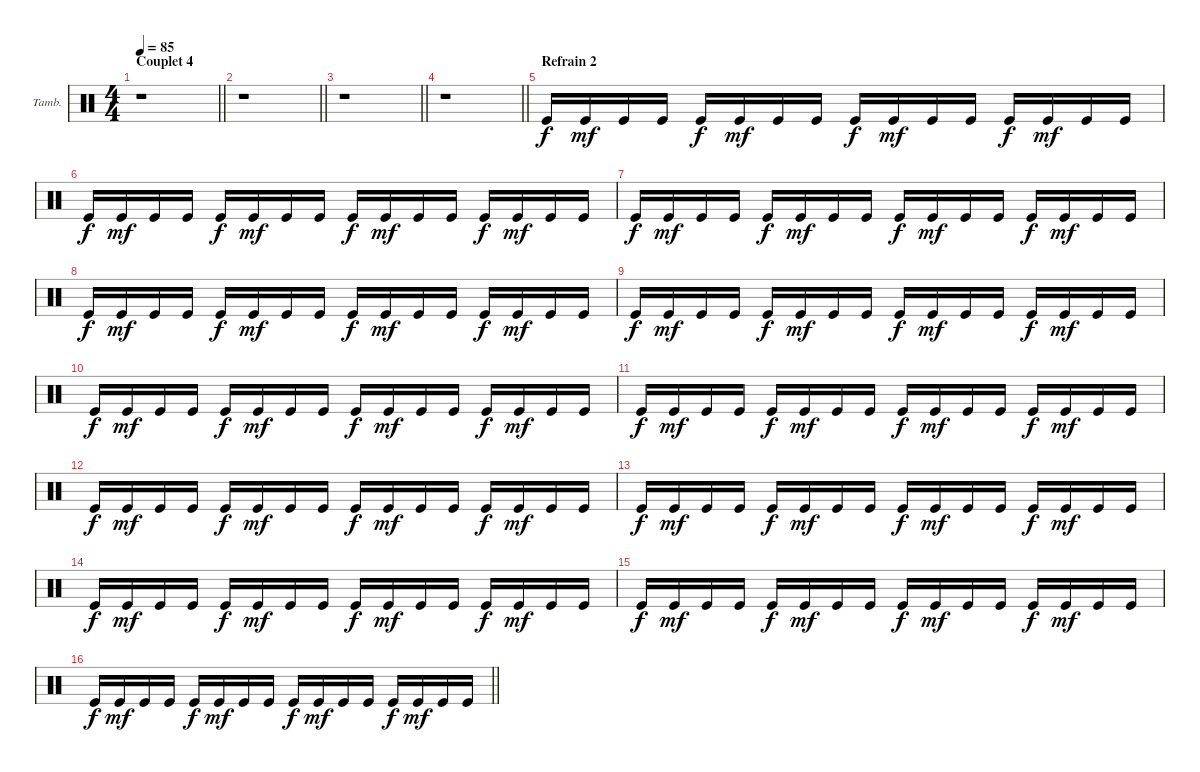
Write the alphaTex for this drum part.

\bracketExtendMode groupsimilarinstruments
\firstSystemTrackNameOrientation horizontal
\otherSystemsTrackNameOrientation horizontal
\chordDiagramsInScore
\track ("Tambourine" "Tamb.") {instrument percussion}
\staff {score}
\articulation defaults
\ts (4 4)
\section ("" "Couplet 4")
\tempo 85
\clef neutral
\barLineRight lightlight
\ks c
r.1{dy ppp} |
\barLineRight lightlight
r.1 |
\barLineRight lightlight
r.1 |
\barLineRight lightlight
r.1 |
\section ("" "Refrain 2")
"Kick (hit)".16{dy f} "Kick (hit)".16{dy mf} "Kick (hit)".16 "Kick (hit)".16 "Kick (hit)".16{dy f} "Kick (hit)".16{dy mf} "Kick (hit)".16 "Kick (hit)".16 "Kick (hit)".16{dy f} "Kick (hit)".16{dy mf} "Kick (hit)".16 "Kick (hit)".16 "Kick (hit)".16{dy f} "Kick (hit)".16{dy mf} "Kick (hit)".16 "Kick (hit)".16 |
"Kick (hit)".16{dy f} "Kick (hit)".16{dy mf} "Kick (hit)".16 "Kick (hit)".16 "Kick (hit)".16{dy f} "Kick (hit)".16{dy mf} "Kick (hit)".16 "Kick (hit)".16 "Kick (hit)".16{dy f} "Kick (hit)".16{dy mf} "Kick (hit)".16 "Kick (hit)".16 "Kick (hit)".16{dy f} "Kick (hit)".16{dy mf} "Kick (hit)".16 "Kick (hit)".16 |
"Kick (hit)".16{dy f} "Kick (hit)".16{dy mf} "Kick (hit)".16 "Kick (hit)".16 "Kick (hit)".16{dy f} "Kick (hit)".16{dy mf} "Kick (hit)".16 "Kick (hit)".16 "Kick (hit)".16{dy f} "Kick (hit)".16{dy mf} "Kick (hit)".16 "Kick (hit)".16 "Kick (hit)".16{dy f} "Kick (hit)".16{dy mf} "Kick (hit)".16 "Kick (hit)".16 |
"Kick (hit)".16{dy f} "Kick (hit)".16{dy mf} "Kick (hit)".16 "Kick (hit)".16 "Kick (hit)".16{dy f} "Kick (hit)".16{dy mf} "Kick (hit)".16 "Kick (hit)".16 "Kick (hit)".16{dy f} "Kick (hit)".16{dy mf} "Kick (hit)".16 "Kick (hit)".16 "Kick (hit)".16{dy f} "Kick (hit)".16{dy mf} "Kick (hit)".16 "Kick (hit)".16 |
"Kick (hit)".16{dy f} "Kick (hit)".16{dy mf} "Kick (hit)".16 "Kick (hit)".16 "Kick (hit)".16{dy f} "Kick (hit)".16{dy mf} "Kick (hit)".16 "Kick (hit)".16 "Kick (hit)".16{dy f} "Kick (hit)".16{dy mf} "Kick (hit)".16 "Kick (hit)".16 "Kick (hit)".16{dy f} "Kick (hit)".16{dy mf} "Kick (hit)".16 "Kick (hit)".16 |
"Kick (hit)".16{dy f} "Kick (hit)".16{dy mf} "Kick (hit)".16 "Kick (hit)".16 "Kick (hit)".16{dy f} "Kick (hit)".16{dy mf} "Kick (hit)".16 "Kick (hit)".16 "Kick (hit)".16{dy f} "Kick (hit)".16{dy mf} "Kick (hit)".16 "Kick (hit)".16 "Kick (hit)".16{dy f} "Kick (hit)".16{dy mf} "Kick (hit)".16 "Kick (hit)".16 |
"Kick (hit)".16{dy f} "Kick (hit)".16{dy mf} "Kick (hit)".16 "Kick (hit)".16 "Kick (hit)".16{dy f} "Kick (hit)".16{dy mf} "Kick (hit)".16 "Kick (hit)".16 "Kick (hit)".16{dy f} "Kick (hit)".16{dy mf} "Kick (hit)".16 "Kick (hit)".16 "Kick (hit)".16{dy f} "Kick (hit)".16{dy mf} "Kick (hit)".16 "Kick (hit)".16 |
"Kick (hit)".16{dy f} "Kick (hit)".16{dy mf} "Kick (hit)".16 "Kick (hit)".16 "Kick (hit)".16{dy f} "Kick (hit)".16{dy mf} "Kick (hit)".16 "Kick (hit)".16 "Kick (hit)".16{dy f} "Kick (hit)".16{dy mf} "Kick (hit)".16 "Kick (hit)".16 "Kick (hit)".16{dy f} "Kick (hit)".16{dy mf} "Kick (hit)".16 "Kick (hit)".16 |
"Kick (hit)".16{dy f} "Kick (hit)".16{dy mf} "Kick (hit)".16 "Kick (hit)".16 "Kick (hit)".16{dy f} "Kick (hit)".16{dy mf} "Kick (hit)".16 "Kick (hit)".16 "Kick (hit)".16{dy f} "Kick (hit)".16{dy mf} "Kick (hit)".16 "Kick (hit)".16 "Kick (hit)".16{dy f} "Kick (hit)".16{dy mf} "Kick (hit)".16 "Kick (hit)".16 |
"Kick (hit)".16{dy f} "Kick (hit)".16{dy mf} "Kick (hit)".16 "Kick (hit)".16 "Kick (hit)".16{dy f} "Kick (hit)".16{dy mf} "Kick (hit)".16 "Kick (hit)".16 "Kick (hit)".16{dy f} "Kick (hit)".16{dy mf} "Kick (hit)".16 "Kick (hit)".16 "Kick (hit)".16{dy f} "Kick (hit)".16{dy mf} "Kick (hit)".16 "Kick (hit)".16 |
"Kick (hit)".16{dy f} "Kick (hit)".16{dy mf} "Kick (hit)".16 "Kick (hit)".16 "Kick (hit)".16{dy f} "Kick (hit)".16{dy mf} "Kick (hit)".16 "Kick (hit)".16 "Kick (hit)".16{dy f} "Kick (hit)".16{dy mf} "Kick (hit)".16 "Kick (hit)".16 "Kick (hit)".16{dy f} "Kick (hit)".16{dy mf} "Kick (hit)".16 "Kick (hit)".16 |
\barLineRight lightlight "Kick (hit)".16{dy f} "Kick (hit)".16{dy mf} "Kick (hit)".16 "Kick (hit)".16 "Kick (hit)".16{dy f} "Kick (hit)".16{dy mf} "Kick (hit)".16 "Kick (hit)".16 "Kick (hit)".16{dy f} "Kick (hit)".16{dy mf} "Kick (hit)".16 "Kick (hit)".16 "Kick (hit)".16{dy f} "Kick (hit)".16{dy mf} "Kick (hit)".16 "Kick (hit)".16
